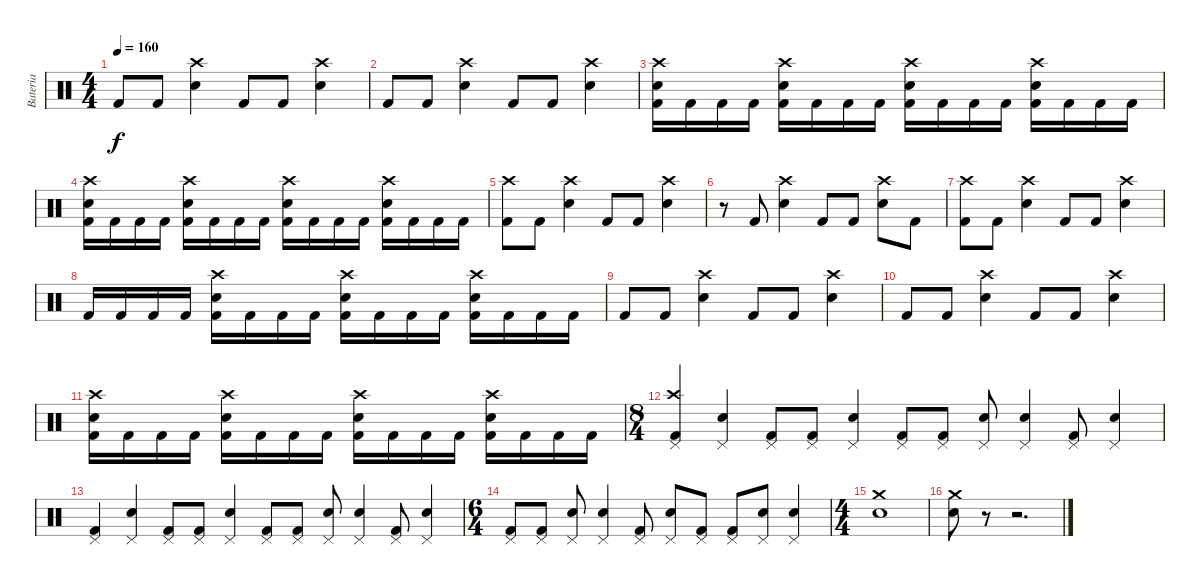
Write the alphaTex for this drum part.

\track ("Bateria" "Bateria") {instrument percussion}
\staff {score}
\articulation defaults
\ts (4 4)
\tempo 160
\clef neutral
\ks c "Kick (hit) 2".8{dy f} "Kick (hit) 2".8
("Electric Snare (hit)" "Crash high (hit)").4 "Kick (hit) 2".8 "Kick (hit) 2".8 ("Electric Snare (hit)" "Crash high (hit)").4 |
"Kick (hit) 2".8 "Kick (hit) 2".8 ("Electric Snare (hit)" "Crash high (hit)").4 "Kick (hit) 2".8 "Kick (hit) 2".8 ("Electric Snare (hit)" "Crash high (hit)").4 |
("Crash high (hit)" "Kick (hit) 2" "Electric Snare (hit)").16 "Kick (hit) 2".16 "Kick (hit) 2".16 "Kick (hit) 2".16 ("Crash high (hit)" "Kick (hit) 2" "Electric Snare (hit)").16 "Kick (hit) 2".16 "Kick (hit) 2".16 "Kick (hit) 2".16 ("Crash high (hit)" "Kick (hit) 2" "Electric Snare (hit)").16 "Kick (hit) 2".16 "Kick (hit) 2".16 "Kick (hit) 2".16 ("Crash high (hit)" "Kick (hit) 2" "Electric Snare (hit)").16 "Kick (hit) 2".16 "Kick (hit) 2".16 "Kick (hit) 2".16 |
("Crash high (hit)" "Kick (hit) 2" "Electric Snare (hit)").16 "Kick (hit) 2".16 "Kick (hit) 2".16 "Kick (hit) 2".16 ("Crash high (hit)" "Kick (hit) 2" "Electric Snare (hit)").16 "Kick (hit) 2".16 "Kick (hit) 2".16 "Kick (hit) 2".16 ("Crash high (hit)" "Kick (hit) 2" "Electric Snare (hit)").16 "Kick (hit) 2".16 "Kick (hit) 2".16 "Kick (hit) 2".16 ("Crash high (hit)" "Kick (hit) 2" "Electric Snare (hit)").16 "Kick (hit) 2".16 "Kick (hit) 2".16 "Kick (hit) 2".16 |
("Kick (hit) 2" "Crash high (hit)").8 "Kick (hit) 2".8 ("Electric Snare (hit)" "Crash high (hit)").4 "Kick (hit) 2".8 "Kick (hit) 2".8 ("Electric Snare (hit)" "Crash high (hit)").4 |
r.8 "Kick (hit) 2".8 ("Snare (hit) 2" "Crash high (hit)").4 "Kick (hit) 2".8 "Kick (hit) 2".8 ("Crash high (hit)" "Snare (hit) 2").8 "Kick (hit) 2".8 |
("Kick (hit) 2" "Crash high (hit)").8 "Kick (hit) 2".8 ("Electric Snare (hit)" "Crash high (hit)").4 "Kick (hit) 2".8 "Kick (hit) 2".8 ("Electric Snare (hit)" "Crash high (hit)").4 |
"Kick (hit) 2".16 "Kick (hit) 2".16 "Kick (hit) 2".16 "Kick (hit) 2".16 ("Crash high (hit)" "Kick (hit) 2" "Electric Snare (hit)").16 "Kick (hit) 2".16 "Kick (hit) 2".16 "Kick (hit) 2".16 ("Crash high (hit)" "Kick (hit) 2" "Electric Snare (hit)").16 "Kick (hit) 2".16 "Kick (hit) 2".16 "Kick (hit) 2".16 ("Crash high (hit)" "Kick (hit) 2" "Electric Snare (hit)").16 "Kick (hit) 2".16 "Kick (hit) 2".16 "Kick (hit) 2".16 |
"Kick (hit) 2".8 "Kick (hit) 2".8 ("Electric Snare (hit)" "Crash high (hit)").4 "Kick (hit) 2".8 "Kick (hit) 2".8 ("Electric Snare (hit)" "Crash high (hit)").4 |
"Kick (hit) 2".8 "Kick (hit) 2".8 ("Electric Snare (hit)" "Crash high (hit)").4 "Kick (hit) 2".8 "Kick (hit) 2".8 ("Electric Snare (hit)" "Crash high (hit)").4 |
("Crash high (hit)" "Kick (hit) 2" "Electric Snare (hit)").16 "Kick (hit) 2".16 "Kick (hit) 2".16 "Kick (hit) 2".16 ("Crash high (hit)" "Kick (hit) 2" "Electric Snare (hit)").16 "Kick (hit) 2".16 "Kick (hit) 2".16 "Kick (hit) 2".16 ("Crash high (hit)" "Kick (hit) 2" "Electric Snare (hit)").16 "Kick (hit) 2".16 "Kick (hit) 2".16 "Kick (hit) 2".16 ("Crash high (hit)" "Kick (hit) 2" "Electric Snare (hit)").16 "Kick (hit) 2".16 "Kick (hit) 2".16 "Kick (hit) 2".16 |
\ts (8 4)
("Crash high (hit)" "Pedal Hi-Hat (hit)" "Kick (hit) 2").4 ("Pedal Hi-Hat (hit)" "Snare (hit) 2").4 ("Pedal Hi-Hat (hit)" "Kick (hit) 2").8 ("Pedal Hi-Hat (hit)" "Kick (hit) 2").8 ("Pedal Hi-Hat (hit)" "Snare (hit) 2").4 ("Pedal Hi-Hat (hit)" "Kick (hit) 2").8 ("Pedal Hi-Hat (hit)" "Kick (hit) 2").8 ("Pedal Hi-Hat (hit)" "Snare (hit) 2").8 ("Pedal Hi-Hat (hit)" "Snare (hit) 2").4 ("Pedal Hi-Hat (hit)" "Kick (hit) 2").8 ("Pedal Hi-Hat (hit)" "Snare (hit) 2").4 |
("Pedal Hi-Hat (hit)" "Kick (hit) 2").4 ("Pedal Hi-Hat (hit)" "Snare (hit) 2").4 ("Pedal Hi-Hat (hit)" "Kick (hit) 2").8 ("Pedal Hi-Hat (hit)" "Kick (hit) 2").8 ("Pedal Hi-Hat (hit)" "Snare (hit) 2").4 ("Pedal Hi-Hat (hit)" "Kick (hit) 2").8 ("Pedal Hi-Hat (hit)" "Kick (hit) 2").8 ("Pedal Hi-Hat (hit)" "Snare (hit) 2").8 ("Pedal Hi-Hat (hit)" "Snare (hit) 2").4 ("Pedal Hi-Hat (hit)" "Kick (hit) 2").8 ("Pedal Hi-Hat (hit)" "Snare (hit) 2").4 |
\ts (6 4)
("Pedal Hi-Hat (hit)" "Kick (hit) 2").8 ("Pedal Hi-Hat (hit)" "Kick (hit) 2").8 ("Pedal Hi-Hat (hit)" "Snare (hit) 2").8 ("Pedal Hi-Hat (hit)" "Snare (hit) 2").4 ("Pedal Hi-Hat (hit)" "Kick (hit) 2").8 ("Pedal Hi-Hat (hit)" "Snare (hit) 2").8 ("Pedal Hi-Hat (hit)" "Kick (hit) 2").8 ("Pedal Hi-Hat (hit)" "Kick (hit) 2").8 ("Pedal Hi-Hat (hit)" "Snare (hit) 2").8 ("Pedal Hi-Hat (hit)" "Snare (hit) 2").4 |
\ts (4 4)
("Crash medium (hit)" "Snare (hit) 2").1 |
("Snare (hit) 2" "Crash medium (hit)").8 r.8 r.2{d}
